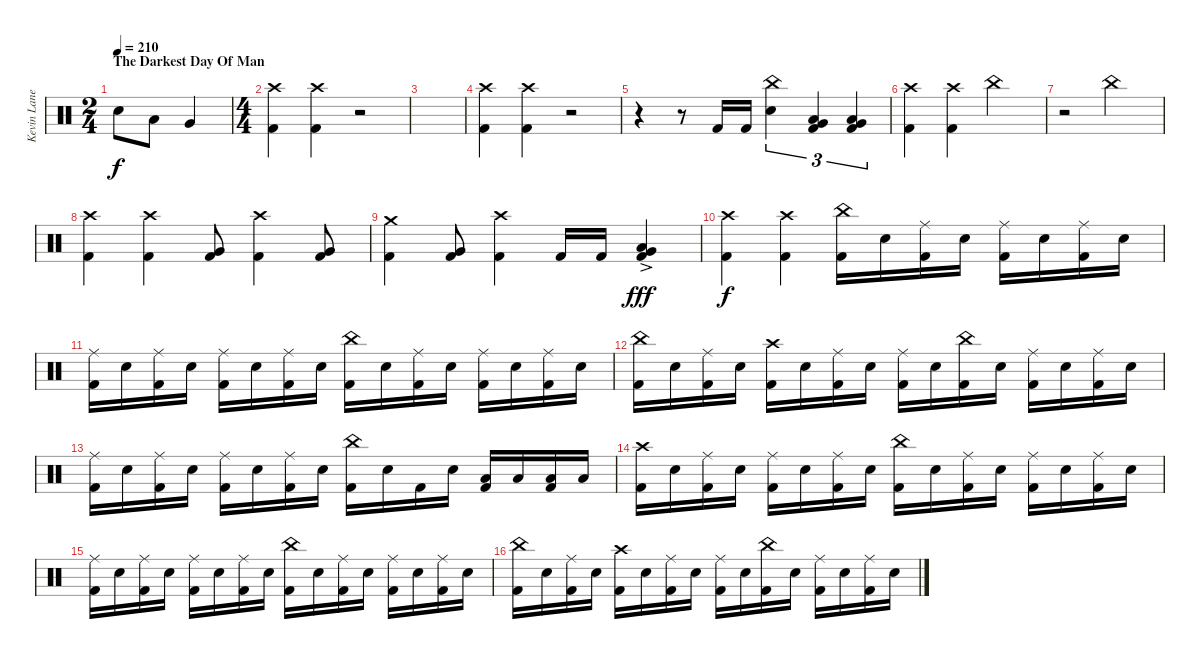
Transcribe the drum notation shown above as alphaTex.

\track ("Kevin Lane (Drums)" "Kevin Lane") {instrument percussion}
\staff {score}
\articulation defaults
\ts (2 4)
\section ("" "The Darkest Day Of Man")
\tempo 210
\clef neutral
\ks c "Snare (hit) 2".8{dy f} "Low Tom (hit)".8 "Very Low Tom (hit)".4
|
\ts (4 4)
("Crash high (hit)" "Kick (hit) 2").4 ("Crash high (hit)" "Kick (hit) 2").4 r.2 |
|
("Crash high (hit)" "Kick (hit) 2").4 ("Crash high (hit)" "Kick (hit) 2").4 r.2 |
r.4 r.8 "Kick (hit) 2".16 "Kick (hit) 2".16 ("China (hit)" "Snare (hit) 2").4{tu (3 2)} ("Low Tom (hit)" "Very Low Tom (hit)" "Kick (hit) 2").4{tu (3 2)} ("Very Low Tom (hit)" "Low Floor Tom (hit)" "Kick (hit) 2").4{tu (3 2)} |
("Crash high (hit)" "Kick (hit) 2").4 ("Crash high (hit)" "Kick (hit) 2").4 "China (hit)".2 |
r.2 "China (hit)".2 |
("Crash high (hit)" "Kick (hit) 2").4 ("Crash high (hit)" "Kick (hit) 2").4 ("Very Low Tom (hit)" "Kick (hit) 2").8 ("Crash high (hit)" "Kick (hit) 2").4 ("Very Low Tom (hit)" "Kick (hit) 2").8 |
("Crash medium (hit)" "Kick (hit) 2").4 ("Very Low Tom (hit)" "Kick (hit) 2").8 ("Crash high (hit)" "Kick (hit) 2").4 "Kick (hit) 2".16 "Kick (hit) 2".16 ("Low Floor Tom (hit)" "Very Low Tom (hit)" "Kick (hit) 2"{ac}).4{dy fff} |
("Crash high (hit)" "Kick (hit) 2").4{dy f} ("Crash high (hit)" "Kick (hit) 2").4 ("China (hit)" "Kick (hit) 2").16 "Snare (hit) 2".16 ("Ride (middle)" "Kick (hit) 2").16 "Snare (hit) 2".16 ("Ride (middle)" "Kick (hit) 2").16 "Snare (hit) 2".16 ("Ride (middle)" "Kick (hit) 2").16 "Snare (hit) 2".16 |
("Ride (middle)" "Kick (hit) 2").16 "Snare (hit) 2".16 ("Ride (middle)" "Kick (hit) 2").16 "Snare (hit) 2".16 ("Ride (middle)" "Kick (hit) 2").16 "Snare (hit) 2".16 ("Ride (middle)" "Kick (hit) 2").16 "Snare (hit) 2".16 ("China (hit)" "Kick (hit) 2").16 "Snare (hit) 2".16 ("Ride (middle)" "Kick (hit) 2").16 "Snare (hit) 2".16 ("Ride (middle)" "Kick (hit) 2").16 "Snare (hit) 2".16 ("Ride (middle)" "Kick (hit) 2").16 "Snare (hit) 2".16 |
("China (hit)" "Kick (hit) 2").16 "Snare (hit) 2".16 ("Ride (middle)" "Kick (hit) 2").16 "Snare (hit) 2".16 ("Crash high (hit)" "Kick (hit) 2").16 "Snare (hit) 2".16 ("Ride (middle)" "Kick (hit) 2").16 "Snare (hit) 2".16 ("Ride (middle)" "Kick (hit) 2").16 "Snare (hit) 2".16 ("China (hit)" "Kick (hit) 2").16 "Snare (hit) 2".16 ("Ride (middle)" "Kick (hit) 2").16 "Snare (hit) 2".16 ("Ride (middle)" "Kick (hit) 2").16 "Snare (hit) 2".16 |
("Ride (middle)" "Kick (hit) 2").16 "Snare (hit) 2".16 ("Ride (middle)" "Kick (hit) 2").16 "Snare (hit) 2".16 ("Ride (middle)" "Kick (hit) 2").16 "Snare (hit) 2".16 ("Ride (middle)" "Kick (hit) 2").16 "Snare (hit) 2".16 ("China (hit)" "Kick (hit) 2").16 "Snare (hit) 2".16 "Kick (hit) 2".16 "Snare (hit) 2".16 ("Low Floor Tom (hit)" "Kick (hit) 2").16 "Low Floor Tom (hit)".16 ("Low Floor Tom (hit)" "Kick (hit) 2").16 "Low Floor Tom (hit)".16 |
("Crash high (hit)" "Kick (hit) 2").16 "Snare (hit) 2".16 ("Ride (middle)" "Kick (hit) 2").16 "Snare (hit) 2".16 ("Ride (middle)" "Kick (hit) 2").16 "Snare (hit) 2".16 ("Ride (middle)" "Kick (hit) 2").16 "Snare (hit) 2".16 ("China (hit)" "Kick (hit) 2").16 "Snare (hit) 2".16 ("Ride (middle)" "Kick (hit) 2").16 "Snare (hit) 2".16 ("Ride (middle)" "Kick (hit) 2").16 "Snare (hit) 2".16 ("Ride (middle)" "Kick (hit) 2").16 "Snare (hit) 2".16 |
("Ride (middle)" "Kick (hit) 2").16 "Snare (hit) 2".16 ("Ride (middle)" "Kick (hit) 2").16 "Snare (hit) 2".16 ("Ride (middle)" "Kick (hit) 2").16 "Snare (hit) 2".16 ("Ride (middle)" "Kick (hit) 2").16 "Snare (hit) 2".16 ("China (hit)" "Kick (hit) 2").16 "Snare (hit) 2".16 ("Ride (middle)" "Kick (hit) 2").16 "Snare (hit) 2".16 ("Ride (middle)" "Kick (hit) 2").16 "Snare (hit) 2".16 ("Ride (middle)" "Kick (hit) 2").16 "Snare (hit) 2".16 |
("China (hit)" "Kick (hit) 2").16 "Snare (hit) 2".16 ("Ride (middle)" "Kick (hit) 2").16 "Snare (hit) 2".16 ("Crash high (hit)" "Kick (hit) 2").16 "Snare (hit) 2".16 ("Ride (middle)" "Kick (hit) 2").16 "Snare (hit) 2".16 ("Ride (middle)" "Kick (hit) 2").16 "Snare (hit) 2".16 ("China (hit)" "Kick (hit) 2").16 "Snare (hit) 2".16 ("Ride (middle)" "Kick (hit) 2").16 "Snare (hit) 2".16 ("Ride (middle)" "Kick (hit) 2").16 "Snare (hit) 2".16
